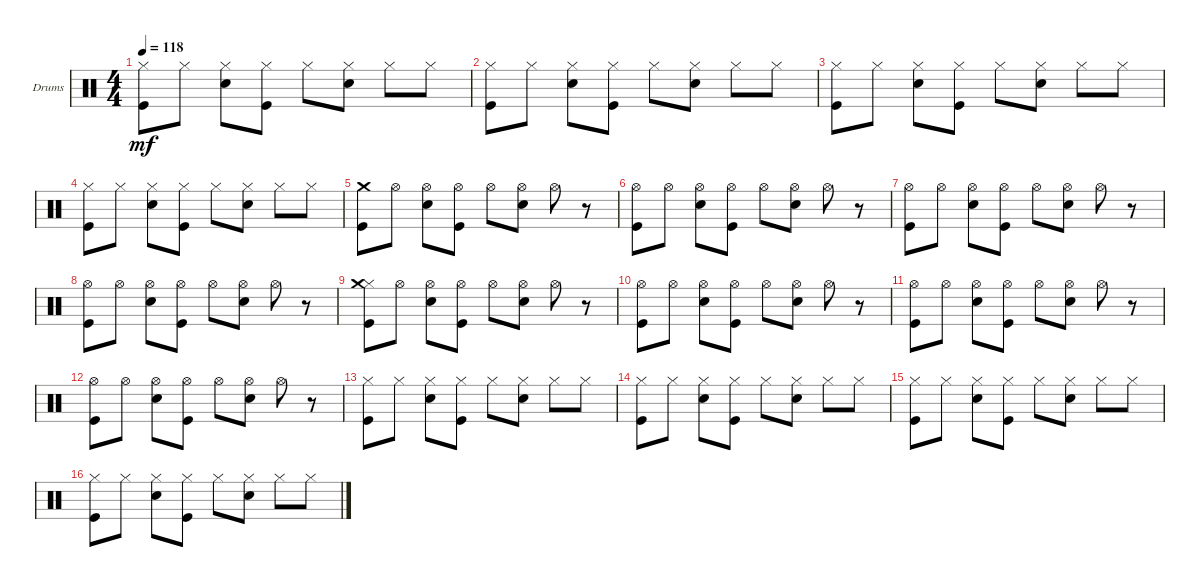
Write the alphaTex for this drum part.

\defaultSystemsLayout 4
\bracketExtendMode groupsimilarinstruments
\firstSystemTrackNameOrientation horizontal
\otherSystemsTrackNameOrientation horizontal
\track ("Drumkit" "Drums") {instrument percussion}
\staff {score}
\articulation defaults
\ts (4 4)
\tempo 118
\clef neutral
\scale
0.333333
\ks c
("Hi-Hat (closed)" "Kick (hit)").8{dy mf} "Hi-Hat (closed)".8 ("Hi-Hat (closed)" "Snare (hit) 2").8 ("Hi-Hat (closed)" "Kick (hit)").8 "Hi-Hat (closed)".8 ("Hi-Hat (closed)" "Snare (hit) 2").8 "Hi-Hat (closed)".8 "Hi-Hat (closed)".8 |
("Hi-Hat (closed)" "Kick (hit)").8 "Hi-Hat (closed)".8 ("Hi-Hat (closed)" "Snare (hit) 2").8 ("Hi-Hat (closed)" "Kick (hit)").8 "Hi-Hat (closed)".8 ("Hi-Hat (closed)" "Snare (hit) 2").8 "Hi-Hat (closed)".8 "Hi-Hat (closed)".8 |
("Hi-Hat (closed)" "Kick (hit)").8 "Hi-Hat (closed)".8 ("Hi-Hat (closed)" "Snare (hit) 2").8 ("Hi-Hat (closed)" "Kick (hit)").8 "Hi-Hat (closed)".8 ("Hi-Hat (closed)" "Snare (hit) 2").8 "Hi-Hat (closed)".8 "Hi-Hat (closed)".8 |
\scale
0.333333 ("Hi-Hat (closed)" "Kick (hit)").8 "Hi-Hat (closed)".8 ("Hi-Hat (closed)" "Snare (hit) 2").8 ("Hi-Hat (closed)" "Kick (hit)").8 "Hi-Hat (closed)".8 ("Hi-Hat (closed)" "Snare (hit) 2").8 "Hi-Hat (closed)".8 "Hi-Hat (closed)".8 |
\scale
0.333333 ("Kick (hit)" "Crash medium (hit)").8 "Hi-Hat (open)".8 ("Hi-Hat (open)" "Snare (hit) 2").8 ("Hi-Hat (open)" "Kick (hit)").8 "Hi-Hat (open)".8 ("Hi-Hat (open)" "Snare (hit) 2").8 "Hi-Hat (open)".8 r.8 |
("Hi-Hat (open)" "Kick (hit)").8 "Hi-Hat (open)".8 ("Hi-Hat (open)" "Snare (hit) 2").8 ("Hi-Hat (open)" "Kick (hit)").8 "Hi-Hat (open)".8 ("Hi-Hat (open)" "Snare (hit) 2").8 "Hi-Hat (open)".8 r.8 |
("Hi-Hat (open)" "Kick (hit)").8 "Hi-Hat (open)".8 ("Hi-Hat (open)" "Snare (hit) 2").8 ("Hi-Hat (open)" "Kick (hit)").8 "Hi-Hat (open)".8 ("Hi-Hat (open)" "Snare (hit) 2").8 "Hi-Hat (open)".8 r.8 |
("Hi-Hat (open)" "Kick (hit)").8 "Hi-Hat (open)".8 ("Hi-Hat (open)" "Snare (hit) 2").8 ("Hi-Hat (open)" "Kick (hit)").8 "Hi-Hat (open)".8 ("Hi-Hat (open)" "Snare (hit) 2").8 "Hi-Hat (open)".8 r.8 |
("Kick (hit)" "Hi-Hat (closed)" "Crash medium (hit)").8 "Hi-Hat (open)".8 ("Hi-Hat (open)" "Snare (hit) 2").8 ("Hi-Hat (open)" "Kick (hit)").8 "Hi-Hat (open)".8 ("Hi-Hat (open)" "Snare (hit) 2").8 "Hi-Hat (open)".8 r.8 |
("Hi-Hat (open)" "Kick (hit)").8 "Hi-Hat (open)".8 ("Hi-Hat (open)" "Snare (hit) 2").8 ("Hi-Hat (open)" "Kick (hit)").8 "Hi-Hat (open)".8 ("Hi-Hat (open)" "Snare (hit) 2").8 "Hi-Hat (open)".8 r.8 |
("Hi-Hat (open)" "Kick (hit)").8 "Hi-Hat (open)".8 ("Hi-Hat (open)" "Snare (hit) 2").8 ("Hi-Hat (open)" "Kick (hit)").8 "Hi-Hat (open)".8 ("Hi-Hat (open)" "Snare (hit) 2").8 "Hi-Hat (open)".8 r.8 |
("Hi-Hat (open)" "Kick (hit)").8 "Hi-Hat (open)".8 ("Hi-Hat (open)" "Snare (hit) 2").8 ("Hi-Hat (open)" "Kick (hit)").8 "Hi-Hat (open)".8 ("Hi-Hat (open)" "Snare (hit) 2").8 "Hi-Hat (open)".8 r.8 |
("Hi-Hat (closed)" "Kick (hit)").8 "Hi-Hat (closed)".8 ("Hi-Hat (closed)" "Snare (hit) 2").8 ("Hi-Hat (closed)" "Kick (hit)").8 "Hi-Hat (closed)".8 ("Hi-Hat (closed)" "Snare (hit) 2").8 "Hi-Hat (closed)".8 "Hi-Hat (closed)".8 |
("Hi-Hat (closed)" "Kick (hit)").8 "Hi-Hat (closed)".8 ("Hi-Hat (closed)" "Snare (hit) 2").8 ("Hi-Hat (closed)" "Kick (hit)").8 "Hi-Hat (closed)".8 ("Hi-Hat (closed)" "Snare (hit) 2").8 "Hi-Hat (closed)".8 "Hi-Hat (closed)".8 |
("Hi-Hat (closed)" "Kick (hit)").8 "Hi-Hat (closed)".8 ("Hi-Hat (closed)" "Snare (hit) 2").8 ("Hi-Hat (closed)" "Kick (hit)").8 "Hi-Hat (closed)".8 ("Hi-Hat (closed)" "Snare (hit) 2").8 "Hi-Hat (closed)".8 "Hi-Hat (closed)".8 |
("Hi-Hat (closed)" "Kick (hit)").8 "Hi-Hat (closed)".8 ("Hi-Hat (closed)" "Snare (hit) 2").8 ("Hi-Hat (closed)" "Kick (hit)").8 "Hi-Hat (closed)".8 ("Hi-Hat (closed)" "Snare (hit) 2").8 "Hi-Hat (closed)".8 "Hi-Hat (closed)".8
